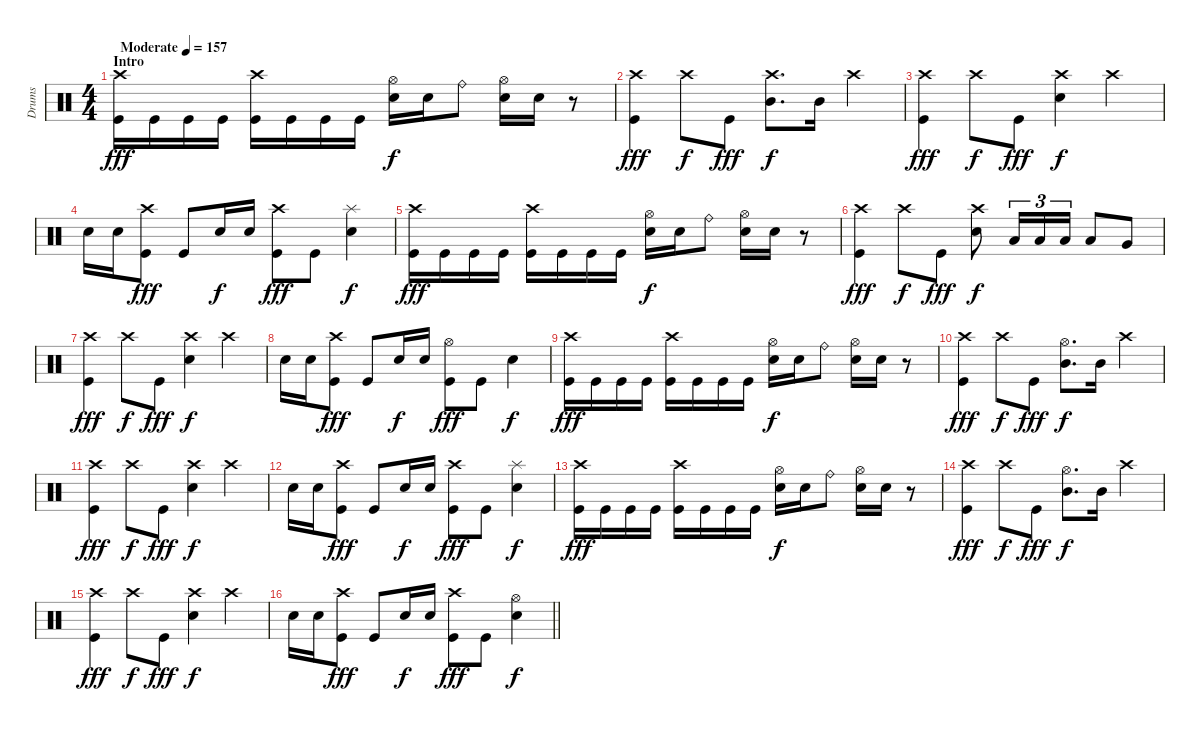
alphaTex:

\track ("Drums" "Drums") {instrument percussion}
\staff {score}
\articulation defaults
\ts (4 4)
\section ("" "Intro")
\tempo (157 "Moderate")
\clef neutral
\ks c
("Crash high (hit)" "Kick (hit)").16{dy fff} "Kick (hit)".16 "Kick (hit)".16 "Kick (hit)".16 ("Crash high (hit)" "Kick (hit)").16 "Kick (hit)".16 "Kick (hit)".16 "Kick (hit)".16 ("Hi-Hat (open)" "Snare (hit) 2").16{dy f} "Snare (hit) 2".16 "Ride (bell)".8 ("Hi-Hat (open)" "Snare (hit) 2").16 "Snare (hit) 2".16 r.8 |
("Crash high (hit)" "Kick (hit)").4{dy fff} "Crash high (hit)".8{dy f} "Kick (hit)".8{dy fff} ("Crash high (hit)" "Mid Tom (hit)").8{d dy f} "Mid Tom (hit)".16 "Crash high (hit)".4 |
("Crash high (hit)" "Kick (hit)").4{dy fff} "Crash high (hit)".8{dy f} "Kick (hit)".8{dy fff} ("Crash high (hit)" "Snare (hit) 2").4{dy f} "Crash high (hit)".4 |
"Snare (hit) 2".16 "Snare (hit) 2".16 ("Crash high (hit)" "Kick (hit)").8{dy fff} "Kick (hit)".8 "Snare (hit) 2".16{dy f} "Snare (hit) 2".16 ("Crash high (hit)" "Kick (hit)").8{dy fff} "Kick (hit)".8 ("Splash (hit)" "Snare (hit) 2").4{dy f} |
("Crash high (hit)" "Kick (hit)").16{dy fff} "Kick (hit)".16 "Kick (hit)".16 "Kick (hit)".16 ("Crash high (hit)" "Kick (hit)").16 "Kick (hit)".16 "Kick (hit)".16 "Kick (hit)".16 ("Hi-Hat (open)" "Snare (hit) 2").16{dy f} "Snare (hit) 2".16 "Ride (bell)".8 ("Hi-Hat (open)" "Snare (hit) 2").16 "Snare (hit) 2".16 r.8 |
("Crash high (hit)" "Kick (hit)").4{dy fff} "Crash high (hit)".8{dy f} "Kick (hit)".8{dy fff} ("Crash high (hit)" "Snare (hit) 2").8{dy f} "Low Tom (hit)".16{tu (3 2)} "Low Tom (hit)".16{tu (3 2)} "Low Tom (hit)".16{tu (3 2)} "Low Tom (hit)".8 "Very Low Tom (hit)".8 |
("Crash high (hit)" "Kick (hit)").4{dy fff} "Crash high (hit)".8{dy f} "Kick (hit)".8{dy fff} ("Crash high (hit)" "Snare (hit) 2").4{dy f} "Crash high (hit)".4 |
"Snare (hit) 2".16 "Snare (hit) 2".16 ("Crash high (hit)" "Kick (hit)").8{dy fff} "Kick (hit)".8 "Snare (hit) 2".16{dy f} "Snare (hit) 2".16 ("Hi-Hat (open)" "Kick (hit)").8{dy fff} "Kick (hit)".8 "Snare (hit) 2".4{dy f} |
("Crash high (hit)" "Kick (hit)").16{dy fff} "Kick (hit)".16 "Kick (hit)".16 "Kick (hit)".16 ("Crash high (hit)" "Kick (hit)").16 "Kick (hit)".16 "Kick (hit)".16 "Kick (hit)".16 ("Hi-Hat (open)" "Snare (hit) 2").16{dy f} "Snare (hit) 2".16 "Ride (bell)".8 ("Hi-Hat (open)" "Snare (hit) 2").16 "Snare (hit) 2".16 r.8 |
("Crash high (hit)" "Kick (hit)").4{dy fff} "Crash high (hit)".8{dy f} "Kick (hit)".8{dy fff} ("Hi-Hat (open)" "Mid Tom (hit)").8{d dy f} "Mid Tom (hit)".16 "Crash high (hit)".4 |
("Crash high (hit)" "Kick (hit)").4{dy fff} "Crash high (hit)".8{dy f} "Kick (hit)".8{dy fff} ("Crash high (hit)" "Snare (hit) 2").4{dy f} "Crash high (hit)".4 |
"Snare (hit) 2".16 "Snare (hit) 2".16 ("Crash high (hit)" "Kick (hit)").8{dy fff} "Kick (hit)".8 "Snare (hit) 2".16{dy f} "Snare (hit) 2".16 ("Crash high (hit)" "Kick (hit)").8{dy fff} "Kick (hit)".8 ("Splash (hit)" "Snare (hit) 2").4{dy f} |
("Crash high (hit)" "Kick (hit)").16{dy fff} "Kick (hit)".16 "Kick (hit)".16 "Kick (hit)".16 ("Crash high (hit)" "Kick (hit)").16 "Kick (hit)".16 "Kick (hit)".16 "Kick (hit)".16 ("Hi-Hat (open)" "Snare (hit) 2").16{dy f} "Snare (hit) 2".16 "Ride (bell)".8 ("Hi-Hat (open)" "Snare (hit) 2").16 "Snare (hit) 2".16 r.8 |
("Crash high (hit)" "Kick (hit)").4{dy fff} "Crash high (hit)".8{dy f} "Kick (hit)".8{dy fff} ("Hi-Hat (open)" "Mid Tom (hit)").8{d dy f} "Mid Tom (hit)".16 "Crash high (hit)".4 |
("Crash high (hit)" "Kick (hit)").4{dy fff} "Crash high (hit)".8{dy f} "Kick (hit)".8{dy fff} ("Crash high (hit)" "Snare (hit) 2").4{dy f} "Crash high (hit)".4 |
\barLineRight lightlight "Snare (hit) 2".16 "Snare (hit) 2".16
("Crash high (hit)" "Kick (hit)").8{dy fff} "Kick (hit)".8 "Snare (hit) 2".16{dy f} "Snare (hit) 2".16 ("Crash high (hit)" "Kick (hit)").8{dy fff} "Kick (hit)".8 ("Hi-Hat (open)" "Snare (hit) 2").4{dy f}
